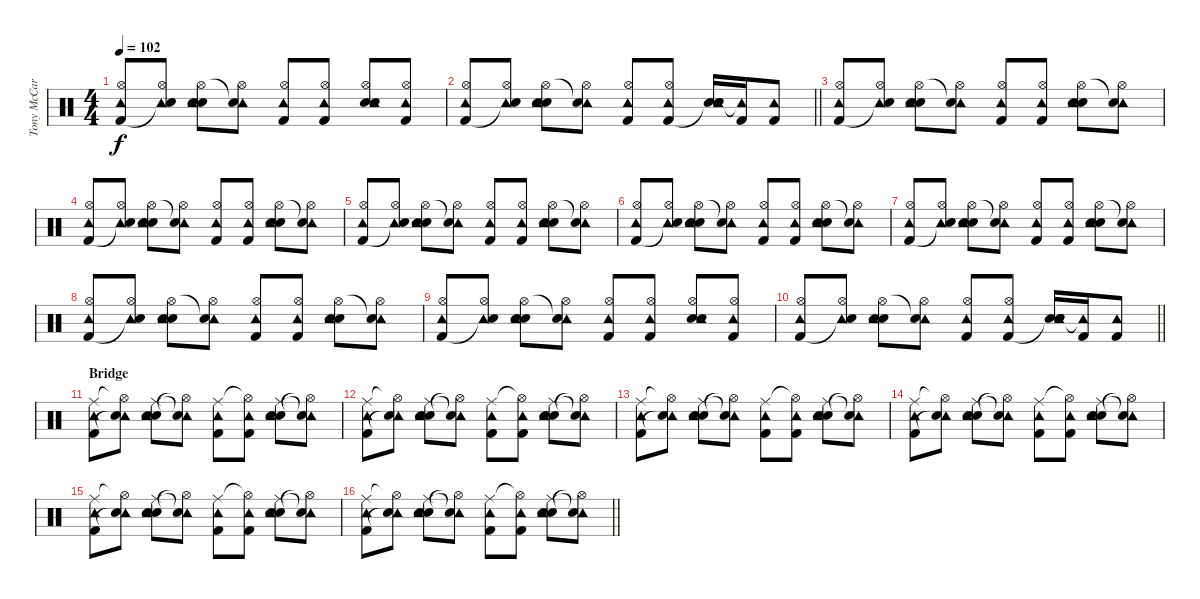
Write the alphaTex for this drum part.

\track ("Tony McCaroll" "Tony McCar") {instrument percussion}
\staff {score}
\articulation defaults
\ts (4 4)
\tempo 102
\clef neutral
\ks c
("Tambourine (hit)" "Hi-Hat (open)" "Kick (hit) 2").8{dy f} ("Tambourine (hit)" "Hi-Hat (open)" "Snare (hit)"{t}).8 ("Hand Clap (hit)" "Tambourine (hit)" "Hi-Hat (open)" "Electric Snare (hit)").8 ("Tambourine (hit)" "Hi-Hat (open)" "Snare (hit)"{t}).8 ("Tambourine (hit)" "Hi-Hat (open)" "Kick (hit) 2").8 ("Tambourine (hit)" "Hi-Hat (open)" "Kick (hit) 2").8 ("Hand Clap (hit)" "Tambourine (hit)" "Hi-Hat (open)" "Electric Snare (hit)").8 ("Tambourine (hit)" "Hi-Hat (open)" "Kick (hit) 2").8 |
\barLineRight lightlight
("Tambourine (hit)" "Hi-Hat (open)" "Kick (hit) 2").8 ("Tambourine (hit)" "Hi-Hat (open)" "Snare (hit)"{t}).8 ("Hand Clap (hit)" "Tambourine (hit)" "Hi-Hat (open)" "Electric Snare (hit)").8 ("Tambourine (hit)" "Hi-Hat (open)" "Snare (hit)"{t}).8 ("Tambourine (hit)" "Hi-Hat (open)" "Kick (hit) 2").8 ("Tambourine (hit)" "Hi-Hat (open)" "Kick (hit) 2").8 ("Hand Clap (hit)" "Tambourine (hit)" "Electric Snare (hit)"{t} "Electric Snare (hit)").16 ("Tambourine (hit)"{t} "Kick (hit) 2").16 ("Tambourine (hit)" "Kick (hit) 2").8 |
("Tambourine (hit)" "Hi-Hat (open)" "Kick (hit) 2").8 ("Tambourine (hit)" "Hi-Hat (open)" "Snare (hit)"{t}).8 ("Hand Clap (hit)" "Tambourine (hit)" "Hi-Hat (open)" "Electric Snare (hit)").8 ("Tambourine (hit)" "Hi-Hat (open)" "Snare (hit)"{t}).8 ("Tambourine (hit)" "Hi-Hat (open)" "Kick (hit) 2").8 ("Tambourine (hit)" "Hi-Hat (open)" "Kick (hit) 2").8 ("Hand Clap (hit)" "Tambourine (hit)" "Hi-Hat (open)" "Electric Snare (hit)").8 ("Tambourine (hit)" "Hi-Hat (open)" "Snare (hit)"{t}).8 |
("Tambourine (hit)" "Hi-Hat (open)" "Kick (hit) 2").8 ("Tambourine (hit)" "Hi-Hat (open)" "Snare (hit)"{t}).8 ("Hand Clap (hit)" "Tambourine (hit)" "Hi-Hat (open)" "Electric Snare (hit)").8 ("Tambourine (hit)" "Hi-Hat (open)" "Snare (hit)"{t}).8 ("Tambourine (hit)" "Hi-Hat (open)" "Kick (hit) 2").8 ("Tambourine (hit)" "Hi-Hat (open)" "Kick (hit) 2").8 ("Hand Clap (hit)" "Tambourine (hit)" "Hi-Hat (open)" "Electric Snare (hit)").8 ("Tambourine (hit)" "Hi-Hat (open)" "Snare (hit)"{t}).8 |
("Tambourine (hit)" "Hi-Hat (open)" "Kick (hit) 2").8 ("Tambourine (hit)" "Hi-Hat (open)" "Snare (hit)"{t}).8 ("Hand Clap (hit)" "Tambourine (hit)" "Hi-Hat (open)" "Electric Snare (hit)").8 ("Tambourine (hit)" "Hi-Hat (open)" "Snare (hit)"{t}).8 ("Tambourine (hit)" "Hi-Hat (open)" "Kick (hit) 2").8 ("Tambourine (hit)" "Hi-Hat (open)" "Kick (hit) 2").8 ("Hand Clap (hit)" "Tambourine (hit)" "Hi-Hat (open)" "Electric Snare (hit)").8 ("Tambourine (hit)" "Hi-Hat (open)" "Snare (hit)"{t}).8 |
("Tambourine (hit)" "Hi-Hat (open)" "Kick (hit) 2").8 ("Tambourine (hit)" "Hi-Hat (open)" "Snare (hit)"{t}).8 ("Hand Clap (hit)" "Tambourine (hit)" "Hi-Hat (open)" "Electric Snare (hit)").8 ("Tambourine (hit)" "Hi-Hat (open)" "Snare (hit)"{t}).8 ("Tambourine (hit)" "Hi-Hat (open)" "Kick (hit) 2").8 ("Tambourine (hit)" "Hi-Hat (open)" "Kick (hit) 2").8 ("Hand Clap (hit)" "Tambourine (hit)" "Hi-Hat (open)" "Electric Snare (hit)").8 ("Tambourine (hit)" "Hi-Hat (open)" "Snare (hit)"{t}).8 |
("Tambourine (hit)" "Hi-Hat (open)" "Kick (hit) 2").8 ("Tambourine (hit)" "Hi-Hat (open)" "Snare (hit)"{t}).8 ("Hand Clap (hit)" "Tambourine (hit)" "Hi-Hat (open)" "Electric Snare (hit)").8 ("Tambourine (hit)" "Hi-Hat (open)" "Snare (hit)"{t}).8 ("Tambourine (hit)" "Hi-Hat (open)" "Kick (hit) 2").8 ("Tambourine (hit)" "Hi-Hat (open)" "Kick (hit) 2").8 ("Hand Clap (hit)" "Tambourine (hit)" "Hi-Hat (open)" "Electric Snare (hit)").8 ("Tambourine (hit)" "Hi-Hat (open)" "Snare (hit)"{t}).8 |
("Tambourine (hit)" "Hi-Hat (open)" "Kick (hit) 2").8 ("Tambourine (hit)" "Hi-Hat (open)" "Snare (hit)"{t}).8 ("Hand Clap (hit)" "Tambourine (hit)" "Hi-Hat (open)" "Electric Snare (hit)").8 ("Tambourine (hit)" "Hi-Hat (open)" "Snare (hit)"{t}).8 ("Tambourine (hit)" "Hi-Hat (open)" "Kick (hit) 2").8 ("Tambourine (hit)" "Hi-Hat (open)" "Kick (hit) 2").8 ("Hand Clap (hit)" "Tambourine (hit)" "Hi-Hat (open)" "Electric Snare (hit)").8 ("Tambourine (hit)" "Hi-Hat (open)" "Snare (hit)"{t}).8 |
("Tambourine (hit)" "Hi-Hat (open)" "Kick (hit) 2").8 ("Tambourine (hit)" "Hi-Hat (open)" "Snare (hit)"{t}).8 ("Hand Clap (hit)" "Tambourine (hit)" "Hi-Hat (open)" "Electric Snare (hit)").8 ("Tambourine (hit)" "Hi-Hat (open)" "Snare (hit)"{t}).8 ("Tambourine (hit)" "Hi-Hat (open)" "Kick (hit) 2").8 ("Tambourine (hit)" "Hi-Hat (open)" "Kick (hit) 2").8 ("Hand Clap (hit)" "Tambourine (hit)" "Hi-Hat (open)" "Electric Snare (hit)").8 ("Tambourine (hit)" "Hi-Hat (open)" "Kick (hit) 2").8 |
\barLineRight lightlight
("Tambourine (hit)" "Hi-Hat (open)" "Kick (hit) 2").8 ("Tambourine (hit)" "Hi-Hat (open)" "Snare (hit)"{t}).8 ("Hand Clap (hit)" "Tambourine (hit)" "Hi-Hat (open)" "Electric Snare (hit)").8 ("Tambourine (hit)" "Hi-Hat (open)" "Snare (hit)"{t}).8 ("Tambourine (hit)" "Hi-Hat (open)" "Kick (hit) 2").8 ("Tambourine (hit)" "Hi-Hat (open)" "Kick (hit) 2").8 ("Hand Clap (hit)" "Tambourine (hit)" "Electric Snare (hit)"{t} "Electric Snare (hit)").16 ("Tambourine (hit)"{t} "Kick (hit) 2").16 ("Tambourine (hit)" "Kick (hit) 2").8 |
\section ("" "Bridge")
("Tambourine (hit)" "Ride (middle)" "Kick (hit) 2").8 ("Tambourine (hit)" "Hi-Hat (open)"{t} "Snare (hit)"{t}).8 ("Hand Clap (hit)" "Tambourine (hit)" "Ride (middle)" "Electric Snare (hit)").8 ("Tambourine (hit)" "Hi-Hat (open)"{t} "Snare (hit)"{t}).8 ("Tambourine (hit)" "Ride (middle)" "Kick (hit) 2").8 ("Tambourine (hit)" "Hi-Hat (open)"{t} "Kick (hit) 2").8 ("Hand Clap (hit)" "Tambourine (hit)" "Ride (middle)" "Electric Snare (hit)").8 ("Tambourine (hit)" "Hi-Hat (open)"{t} "Snare (hit)"{t}).8 |
("Tambourine (hit)" "Ride (middle)" "Kick (hit) 2").8 ("Tambourine (hit)" "Hi-Hat (open)"{t} "Snare (hit)"{t}).8 ("Hand Clap (hit)" "Tambourine (hit)" "Ride (middle)" "Electric Snare (hit)").8 ("Tambourine (hit)" "Hi-Hat (open)"{t} "Snare (hit)"{t}).8 ("Tambourine (hit)" "Ride (middle)" "Kick (hit) 2").8 ("Tambourine (hit)" "Hi-Hat (open)"{t} "Kick (hit) 2").8 ("Hand Clap (hit)" "Tambourine (hit)" "Ride (middle)" "Electric Snare (hit)").8 ("Tambourine (hit)" "Hi-Hat (open)"{t} "Snare (hit)"{t}).8 |
("Tambourine (hit)" "Ride (middle)" "Kick (hit) 2").8 ("Tambourine (hit)" "Hi-Hat (open)"{t} "Snare (hit)"{t}).8 ("Hand Clap (hit)" "Tambourine (hit)" "Ride (middle)" "Electric Snare (hit)").8 ("Tambourine (hit)" "Hi-Hat (open)"{t} "Snare (hit)"{t}).8 ("Tambourine (hit)" "Ride (middle)" "Kick (hit) 2").8 ("Tambourine (hit)" "Hi-Hat (open)"{t} "Kick (hit) 2").8 ("Hand Clap (hit)" "Tambourine (hit)" "Ride (middle)" "Electric Snare (hit)").8 ("Tambourine (hit)" "Hi-Hat (open)"{t} "Snare (hit)"{t}).8 |
("Tambourine (hit)" "Ride (middle)" "Kick (hit) 2").8 ("Tambourine (hit)" "Hi-Hat (open)"{t} "Snare (hit)"{t}).8 ("Hand Clap (hit)" "Tambourine (hit)" "Ride (middle)" "Electric Snare (hit)").8 ("Tambourine (hit)" "Hi-Hat (open)"{t} "Snare (hit)"{t}).8 ("Tambourine (hit)" "Ride (middle)" "Kick (hit) 2").8 ("Tambourine (hit)" "Hi-Hat (open)"{t} "Kick (hit) 2").8 ("Hand Clap (hit)" "Tambourine (hit)" "Ride (middle)" "Electric Snare (hit)").8 ("Tambourine (hit)" "Hi-Hat (open)"{t} "Snare (hit)"{t}).8 |
("Tambourine (hit)" "Ride (middle)" "Kick (hit) 2").8 ("Tambourine (hit)" "Hi-Hat (open)"{t} "Snare (hit)"{t}).8 ("Hand Clap (hit)" "Tambourine (hit)" "Ride (middle)" "Electric Snare (hit)").8 ("Tambourine (hit)" "Hi-Hat (open)"{t} "Snare (hit)"{t}).8 ("Tambourine (hit)" "Ride (middle)" "Kick (hit) 2").8 ("Tambourine (hit)" "Hi-Hat (open)"{t} "Kick (hit) 2").8 ("Hand Clap (hit)" "Tambourine (hit)" "Ride (middle)" "Electric Snare (hit)").8 ("Tambourine (hit)" "Hi-Hat (open)"{t} "Snare (hit)"{t}).8 |
\barLineRight lightlight
("Tambourine (hit)" "Ride (middle)" "Kick (hit) 2").8 ("Tambourine (hit)" "Hi-Hat (open)"{t} "Snare (hit)"{t}).8 ("Hand Clap (hit)" "Tambourine (hit)" "Ride (middle)" "Electric Snare (hit)").8 ("Tambourine (hit)" "Hi-Hat (open)"{t} "Snare (hit)"{t}).8 ("Tambourine (hit)" "Ride (middle)" "Kick (hit) 2").8 ("Tambourine (hit)" "Hi-Hat (open)"{t} "Kick (hit) 2").8 ("Hand Clap (hit)" "Tambourine (hit)" "Ride (middle)" "Electric Snare (hit)").8 ("Tambourine (hit)" "Hi-Hat (open)"{t} "Snare (hit)"{t}).8
